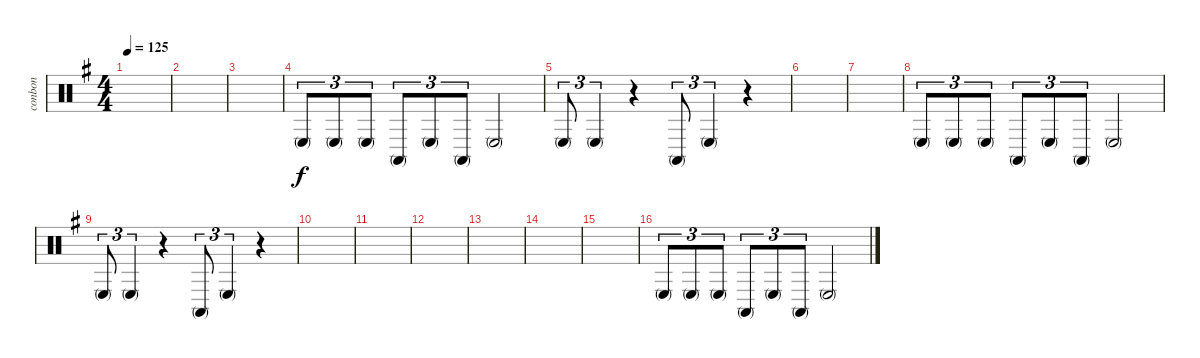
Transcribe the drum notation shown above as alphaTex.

\defaultSystemsLayout 4
\bracketExtendMode groupsimilarinstruments
\otherSystemsTrackNameOrientation horizontal
\track ("Bongos N Congas" "conbon") {instrument percussion}
\staff {score}
\articulation defaults
\ts (4 4)
\tempo 125
\clef neutral
\scale
0.333333
\ks g
|
\scale
0.333333 |
\scale
0.333333 |
\scale
0.333333 "Conga low (mute)"{acc forcenatural}.8{tu (3 2) beam Up} "Conga low (mute)"{acc forcenatural}.8{tu (3 2) beam Up} "Conga low (mute)"{acc forcenatural}.8{tu (3 2) beam Up} "Conga high (mute)"{acc forcenatural}.8{tu (3 2) beam Up} "Conga low (mute)"{acc forcenatural}.8{tu (3 2) beam Up} "Conga high (mute)"{acc forcenatural}.8{tu (3 2) beam Up} "Conga low (mute)"{acc forcenatural}.2{beam Up} |
\scale
0.333333 "Conga low (mute)"{acc forcenatural}.8{tu (3 2) beam Up} "Conga low (mute)"{acc forcenatural}.4{tu (3 2) beam Up} r.4{beam Up} "Conga high (mute)"{acc forcenatural}.8{tu (3 2) beam Up} "Conga low (mute)"{acc forcenatural}.4{tu (3 2) beam Up} r.4{beam Up} |
\scale
0.333333 |
\scale
0.333333 |
\scale
0.333333 "Conga low (mute)"{acc forcenatural}.8{tu (3 2) beam Up} "Conga low (mute)"{acc forcenatural}.8{tu (3 2) beam Up} "Conga low (mute)"{acc forcenatural}.8{tu (3 2) beam Up} "Conga high (mute)"{acc forcenatural}.8{tu (3 2) beam Up} "Conga low (mute)"{acc forcenatural}.8{tu (3 2) beam Up} "Conga high (mute)"{acc forcenatural}.8{tu (3 2) beam Up} "Conga low (mute)"{acc forcenatural}.2{beam Up} |
\scale
0.333333 "Conga low (mute)"{acc forcenatural}.8{tu (3 2) beam Up} "Conga low (mute)"{acc forcenatural}.4{tu (3 2) beam Up} r.4{beam Up} "Conga high (mute)"{acc forcenatural}.8{tu (3 2) beam Up} "Conga low (mute)"{acc forcenatural}.4{tu (3 2) beam Up} r.4{beam Up} |
\scale
0.333333 |
\scale
0.333333 |
\scale
0.333333 |
\scale
0.333333 |
\scale
0.333333 |
\scale
0.333333 |
\scale
0.333333 "Conga low (mute)"{acc forcenatural}.8{tu (3 2) beam Up} "Conga low (mute)"{acc forcenatural}.8{tu (3 2) beam Up} "Conga low (mute)"{acc forcenatural}.8{tu (3 2) beam Up} "Conga high (mute)"{acc forcenatural}.8{tu (3 2) beam Up} "Conga low (mute)"{acc forcenatural}.8{tu (3 2) beam Up} "Conga high (mute)"{acc forcenatural}.8{tu (3 2) beam Up} "Conga low (mute)"{acc forcenatural}.2{beam Up}
